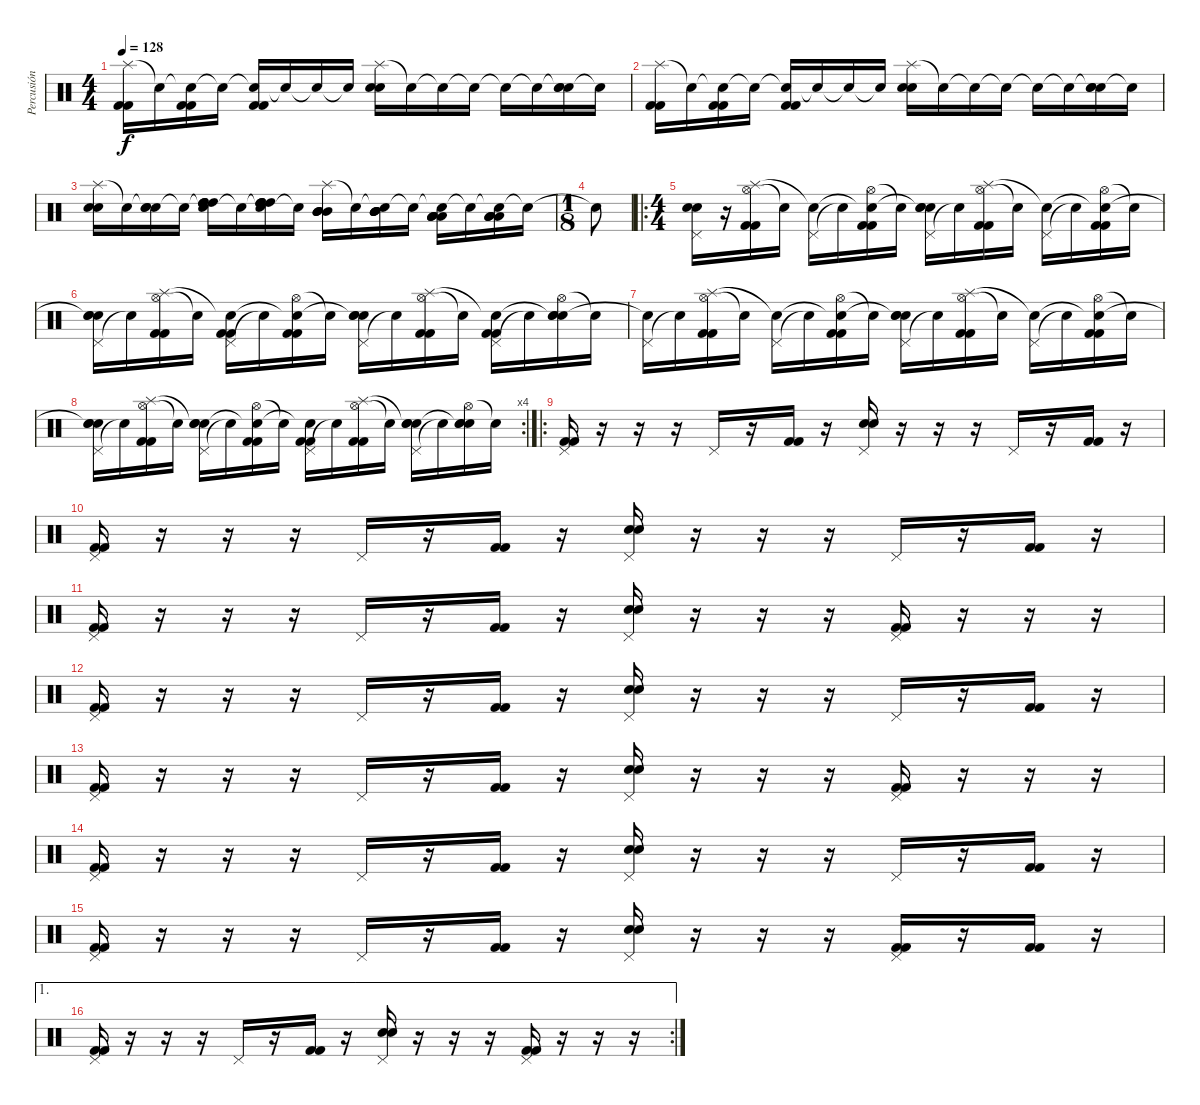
\track ("Percusión" "Percusión") {instrument percussion}
\staff {score}
\articulation defaults
\ts (4 4)
\tempo 128
\clef neutral
\ks c
("Splash (hit)" "Kick (hit) 2" "Kick (hit) 2").16{dy f} "Snare (hit)"{t}.16 ("Snare (hit)"{t} "Kick (hit) 2" "Kick (hit) 2").16 "Snare (hit)"{t}.16 ("Snare (hit)"{t} "Kick (hit) 2" "Kick (hit) 2").16 "Snare (hit)"{t}.16 "Snare (hit)"{t}.16 "Snare (hit)"{t}.16 ("Splash (hit)" "Electric Snare (hit)" "Electric Snare (hit)").16 "Snare (hit)"{t}.16 "Snare (hit)"{t}.16 "Snare (hit)"{t}.16 "Snare (hit)"{t}.16 "Snare (hit)"{t}.16 ("Snare (hit)"{t} "Electric Snare (hit)" "Electric Snare (hit)").16 "Snare (hit)"{t}.16 |
("Splash (hit)" "Kick (hit) 2" "Kick (hit) 2").16 "Snare (hit)"{t}.16 ("Snare (hit)"{t} "Kick (hit) 2" "Kick (hit) 2").16 "Snare (hit)"{t}.16 ("Snare (hit)"{t} "Kick (hit) 2" "Kick (hit) 2").16 "Snare (hit)"{t}.16 "Snare (hit)"{t}.16 "Snare (hit)"{t}.16 ("Splash (hit)" "Electric Snare (hit)" "Electric Snare (hit)").16 "Snare (hit)"{t}.16 "Snare (hit)"{t}.16 "Snare (hit)"{t}.16 "Snare (hit)"{t}.16 "Snare (hit)"{t}.16 ("Snare (hit)"{t} "Electric Snare (hit)" "Electric Snare (hit)").16 "Snare (hit)"{t}.16 |
("Splash (hit)" "Electric Snare (hit)" "Electric Snare (hit)").16 "Snare (hit)"{t}.16 ("Snare (hit)"{t} "Electric Snare (hit)" "Electric Snare (hit)").16 "Snare (hit)"{t}.16 ("Snare (hit)"{t} "High Tom (hit)" "High Tom (hit)" "High Tom (hit)" "High Tom (hit)").16 "Snare (hit)"{t}.16 ("Snare (hit)"{t} "High Tom (hit)" "High Tom (hit)" "High Tom (hit)" "High Tom (hit)").16 "Snare (hit)"{t}.16 ("Splash (hit)" "Mid Tom (hit)" "Mid Tom (hit)" "Mid Tom (hit)" "Mid Tom (hit)").16 "Snare (hit)"{t}.16 ("Snare (hit)"{t} "Mid Tom (hit)" "Mid Tom (hit)" "Mid Tom (hit)" "Mid Tom (hit)").16 "Snare (hit)"{t}.16 ("Snare (hit)"{t} "Low Tom (hit)" "Low Tom (hit)" "Low Tom (hit)" "Low Tom (hit)").16 "Snare (hit)"{t}.16 ("Snare (hit)"{t} "Low Tom (hit)" "Low Tom (hit)" "Low Tom (hit)" "Low Tom (hit)").16 "Snare (hit)"{t}.16 |
\ts (1 8)
"Snare (hit)"{t}.8 |
\ro
\ts (4 4)
("Pedal Hi-Hat (hit)" "Electric Snare (hit)" "Electric Snare (hit)").16 r.16 ("Hi-Hat (open)" "Splash (hit)" "Kick (hit) 2" "Kick (hit) 2").16 "Snare (hit)"{t}.16 ("Pedal Hi-Hat (hit)" "Snare (hit)"{t}).16 "Snare (hit)"{t}.16 ("Hi-Hat (open)" "Snare (hit)"{t} "Kick (hit) 2" "Kick (hit) 2").16 "Snare (hit)"{t}.16 ("Pedal Hi-Hat (hit)" "Snare (hit)"{t} "Electric Snare (hit)" "Electric Snare (hit)").16 "Snare (hit)"{t}.16 ("Hi-Hat (open)" "Splash (hit)" "Kick (hit) 2" "Kick (hit) 2").16 "Snare (hit)"{t}.16 ("Pedal Hi-Hat (hit)" "Snare (hit)"{t}).16 "Snare (hit)"{t}.16 ("Hi-Hat (open)" "Snare (hit)"{t} "Kick (hit) 2" "Kick (hit) 2").16 "Snare (hit)"{t}.16 |
("Pedal Hi-Hat (hit)" "Snare (hit)"{t} "Electric Snare (hit)" "Electric Snare (hit)").16 "Snare (hit)"{t}.16 ("Hi-Hat (open)" "Splash (hit)" "Kick (hit) 2" "Kick (hit) 2").16 "Snare (hit)"{t}.16 ("Pedal Hi-Hat (hit)" "Snare (hit)"{t} "Kick (hit) 2" "Kick (hit) 2").16 "Snare (hit)"{t}.16 ("Hi-Hat (open)" "Snare (hit)"{t} "Kick (hit) 2" "Kick (hit) 2").16 "Snare (hit)"{t}.16 ("Pedal Hi-Hat (hit)" "Snare (hit)"{t} "Electric Snare (hit)" "Electric Snare (hit)").16 "Snare (hit)"{t}.16 ("Hi-Hat (open)" "Splash (hit)" "Kick (hit) 2" "Kick (hit) 2").16 "Snare (hit)"{t}.16 ("Pedal Hi-Hat (hit)" "Snare (hit)"{t} "Kick (hit) 2" "Kick (hit) 2").16 "Snare (hit)"{t}.16 ("Hi-Hat (open)" "Snare (hit)"{t} "Electric Snare (hit)" "Electric Snare (hit)").16 "Snare (hit)"{t}.16 |
("Pedal Hi-Hat (hit)" "Snare (hit)"{t}).16 "Snare (hit)"{t}.16 ("Hi-Hat (open)" "Splash (hit)" "Kick (hit) 2" "Kick (hit) 2").16 "Snare (hit)"{t}.16 ("Pedal Hi-Hat (hit)" "Snare (hit)"{t}).16 "Snare (hit)"{t}.16 ("Hi-Hat (open)" "Snare (hit)"{t} "Kick (hit) 2" "Kick (hit) 2").16 "Snare (hit)"{t}.16 ("Pedal Hi-Hat (hit)" "Snare (hit)"{t} "Electric Snare (hit)" "Electric Snare (hit)").16 "Snare (hit)"{t}.16 ("Hi-Hat (open)" "Splash (hit)" "Kick (hit) 2" "Kick (hit) 2").16 "Snare (hit)"{t}.16 ("Pedal Hi-Hat (hit)" "Snare (hit)"{t}).16 "Snare (hit)"{t}.16 ("Hi-Hat (open)" "Snare (hit)"{t} "Kick (hit) 2" "Kick (hit) 2").16 "Snare (hit)"{t}.16 |
\rc 4
("Pedal Hi-Hat (hit)" "Electric Snare (hit)"{t} "Electric Snare (hit)" "Electric Snare (hit)").16 "Snare (hit)"{t}.16 ("Hi-Hat (open)" "Splash (hit)" "Kick (hit) 2" "Kick (hit) 2").16 "Snare (hit)"{t}.16 ("Pedal Hi-Hat (hit)" "Snare (hit)"{t} "Electric Snare (hit)" "Electric Snare (hit)").16 "Snare (hit)"{t}.16 ("Hi-Hat (open)" "Snare (hit)"{t} "Kick (hit) 2" "Kick (hit) 2").16 "Snare (hit)"{t}.16 ("Pedal Hi-Hat (hit)" "Snare (hit)"{t} "Kick (hit) 2" "Kick (hit) 2").16 "Snare (hit)"{t}.16 ("Hi-Hat (open)" "Splash (hit)" "Kick (hit) 2" "Kick (hit) 2").16 "Snare (hit)"{t}.16 ("Pedal Hi-Hat (hit)" "Snare (hit)"{t} "Electric Snare (hit)" "Electric Snare (hit)").16 "Snare (hit)"{t}.16 ("Hi-Hat (open)" "Snare (hit)"{t} "Electric Snare (hit)" "Electric Snare (hit)").16 "Snare (hit)"{t}.16 |
\ro
("Pedal Hi-Hat (hit)" "Kick (hit) 2" "Kick (hit) 2").16 r.16 r.16 r.16 "Pedal Hi-Hat (hit)".16 r.16 ("Kick (hit) 2" "Kick (hit) 2").16 r.16 ("Pedal Hi-Hat (hit)" "Electric Snare (hit)" "Electric Snare (hit)").16 r.16 r.16 r.16 "Pedal Hi-Hat (hit)".16 r.16 ("Kick (hit) 2" "Kick (hit) 2").16 r.16 |
("Pedal Hi-Hat (hit)" "Kick (hit) 2" "Kick (hit) 2").16 r.16 r.16 r.16 "Pedal Hi-Hat (hit)".16 r.16 ("Kick (hit) 2" "Kick (hit) 2").16 r.16 ("Pedal Hi-Hat (hit)" "Electric Snare (hit)" "Electric Snare (hit)").16 r.16 r.16 r.16 "Pedal Hi-Hat (hit)".16 r.16 ("Kick (hit) 2" "Kick (hit) 2").16 r.16 |
("Pedal Hi-Hat (hit)" "Kick (hit) 2" "Kick (hit) 2").16 r.16 r.16 r.16 "Pedal Hi-Hat (hit)".16 r.16 ("Kick (hit) 2" "Kick (hit) 2").16 r.16 ("Pedal Hi-Hat (hit)" "Electric Snare (hit)" "Electric Snare (hit)").16 r.16 r.16 r.16 ("Pedal Hi-Hat (hit)" "Kick (hit) 2" "Kick (hit) 2").16 r.16 r.16 r.16 |
("Pedal Hi-Hat (hit)" "Kick (hit) 2" "Kick (hit) 2").16 r.16 r.16 r.16 "Pedal Hi-Hat (hit)".16 r.16 ("Kick (hit) 2" "Kick (hit) 2").16 r.16 ("Pedal Hi-Hat (hit)" "Electric Snare (hit)" "Electric Snare (hit)").16 r.16 r.16 r.16 "Pedal Hi-Hat (hit)".16 r.16 ("Kick (hit) 2" "Kick (hit) 2").16 r.16 |
("Pedal Hi-Hat (hit)" "Kick (hit) 2" "Kick (hit) 2").16 r.16 r.16 r.16 "Pedal Hi-Hat (hit)".16 r.16 ("Kick (hit) 2" "Kick (hit) 2").16 r.16 ("Pedal Hi-Hat (hit)" "Electric Snare (hit)" "Electric Snare (hit)").16 r.16 r.16 r.16 ("Pedal Hi-Hat (hit)" "Kick (hit) 2" "Kick (hit) 2").16 r.16 r.16 r.16 |
("Pedal Hi-Hat (hit)" "Kick (hit) 2" "Kick (hit) 2").16 r.16 r.16 r.16 "Pedal Hi-Hat (hit)".16 r.16 ("Kick (hit) 2" "Kick (hit) 2").16 r.16 ("Pedal Hi-Hat (hit)" "Electric Snare (hit)" "Electric Snare (hit)").16 r.16 r.16 r.16 "Pedal Hi-Hat (hit)".16 r.16 ("Kick (hit) 2" "Kick (hit) 2").16 r.16 |
("Pedal Hi-Hat (hit)" "Kick (hit) 2" "Kick (hit) 2").16 r.16 r.16 r.16 "Pedal Hi-Hat (hit)".16 r.16 ("Kick (hit) 2" "Kick (hit) 2").16 r.16 ("Pedal Hi-Hat (hit)" "Electric Snare (hit)" "Electric Snare (hit)").16 r.16 r.16 r.16 ("Pedal Hi-Hat (hit)" "Kick (hit) 2" "Kick (hit) 2").16 r.16 ("Kick (hit) 2" "Kick (hit) 2").16 r.16 |
\ae 1
\rc 2
("Pedal Hi-Hat (hit)" "Kick (hit) 2" "Kick (hit) 2").16 r.16 r.16 r.16 "Pedal Hi-Hat (hit)".16 r.16 ("Kick (hit) 2" "Kick (hit) 2").16 r.16 ("Pedal Hi-Hat (hit)" "Electric Snare (hit)" "Electric Snare (hit)").16 r.16 r.16 r.16 ("Pedal Hi-Hat (hit)" "Kick (hit) 2" "Kick (hit) 2").16 r.16 r.16 r.16
